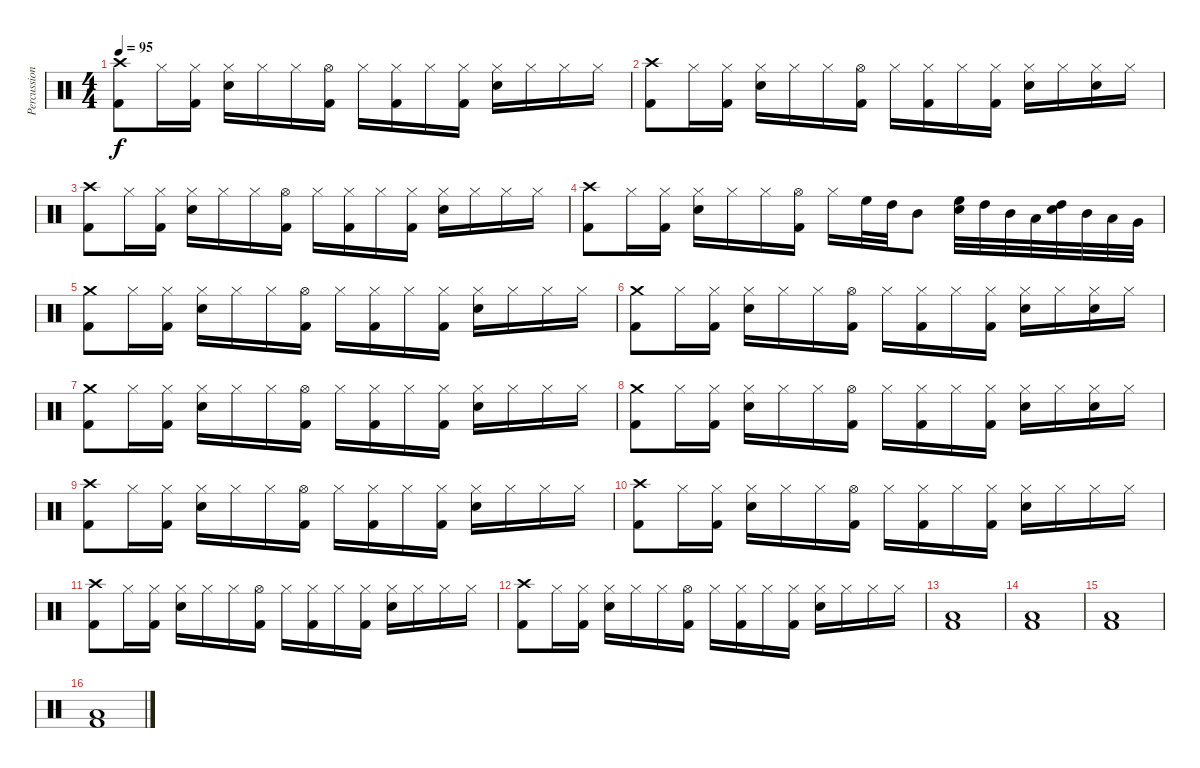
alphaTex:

\track ("Percussion" "Percussion") {instrument percussion}
\staff {score}
\articulation defaults
\ts (4 4)
\tempo 95
\clef neutral
\ks c
("Crash high (hit)" "Kick (hit) 2").8{dy f} "Hi-Hat (closed)".16 ("Hi-Hat (closed)" "Kick (hit) 2").16 ("Hi-Hat (closed)" "Electric Snare (hit)").16 "Hi-Hat (closed)".16 "Hi-Hat (closed)".16 ("Hi-Hat (open)" "Kick (hit) 2").16 "Hi-Hat (closed)".16 ("Hi-Hat (closed)" "Kick (hit) 2").16 "Hi-Hat (closed)".16 ("Hi-Hat (closed)" "Kick (hit) 2").16 ("Hi-Hat (closed)" "Electric Snare (hit)").16 "Hi-Hat (closed)".16 "Hi-Hat (closed)".16 "Hi-Hat (closed)".16 |
("Crash high (hit)" "Kick (hit) 2").8 "Hi-Hat (closed)".16 ("Hi-Hat (closed)" "Kick (hit) 2").16 ("Hi-Hat (closed)" "Electric Snare (hit)").16 "Hi-Hat (closed)".16 "Hi-Hat (closed)".16 ("Hi-Hat (open)" "Kick (hit) 2").16 "Hi-Hat (closed)".16 ("Hi-Hat (closed)" "Kick (hit) 2").16 "Hi-Hat (closed)".16 ("Hi-Hat (closed)" "Kick (hit) 2").16 ("Hi-Hat (closed)" "Electric Snare (hit)").16 "Hi-Hat (closed)".16 ("Hi-Hat (closed)" "Electric Snare (hit)").16 "Hi-Hat (closed)".16 |
("Crash high (hit)" "Kick (hit) 2").8 "Hi-Hat (closed)".16 ("Hi-Hat (closed)" "Kick (hit) 2").16 ("Hi-Hat (closed)" "Electric Snare (hit)").16 "Hi-Hat (closed)".16 "Hi-Hat (closed)".16 ("Hi-Hat (open)" "Kick (hit) 2").16 "Hi-Hat (closed)".16 ("Hi-Hat (closed)" "Kick (hit) 2").16 "Hi-Hat (closed)".16 ("Hi-Hat (closed)" "Kick (hit) 2").16 ("Hi-Hat (closed)" "Electric Snare (hit)").16 "Hi-Hat (closed)".16 "Hi-Hat (closed)".16 "Hi-Hat (closed)".16 |
("Crash high (hit)" "Kick (hit) 2").8 "Hi-Hat (closed)".16 ("Hi-Hat (closed)" "Kick (hit) 2").16 ("Hi-Hat (closed)" "Electric Snare (hit)").16 "Hi-Hat (closed)".16 "Hi-Hat (closed)".16 ("Hi-Hat (open)" "Kick (hit) 2").16 "Hi-Hat (closed)".16 "High Floor Tom (hit)".32 "High Tom (hit)".32 "Mid Tom (hit)".8 ("Electric Snare (hit)" "High Floor Tom (hit)").32 "High Tom (hit)".32 "Mid Tom (hit)".32 "Low Tom (hit)".32 ("Electric Snare (hit)" "High Tom (hit)").32 "Mid Tom (hit)".32 "Low Tom (hit)".32 "Very Low Tom (hit)".32 |
("Crash medium (hit)" "Kick (hit) 2").8 "Hi-Hat (closed)".16 ("Hi-Hat (closed)" "Kick (hit) 2").16 ("Hi-Hat (closed)" "Electric Snare (hit)").16 "Hi-Hat (closed)".16 "Hi-Hat (closed)".16 ("Hi-Hat (open)" "Kick (hit) 2").16 "Hi-Hat (closed)".16 ("Hi-Hat (closed)" "Kick (hit) 2").16 "Hi-Hat (closed)".16 ("Hi-Hat (closed)" "Kick (hit) 2").16 ("Hi-Hat (closed)" "Electric Snare (hit)").16 "Hi-Hat (closed)".16 "Hi-Hat (closed)".16 "Hi-Hat (closed)".16 |
("Crash medium (hit)" "Kick (hit) 2").8 "Hi-Hat (closed)".16 ("Hi-Hat (closed)" "Kick (hit) 2").16 ("Hi-Hat (closed)" "Electric Snare (hit)").16 "Hi-Hat (closed)".16 "Hi-Hat (closed)".16 ("Hi-Hat (open)" "Kick (hit) 2").16 "Hi-Hat (closed)".16 ("Hi-Hat (closed)" "Kick (hit) 2").16 "Hi-Hat (closed)".16 ("Hi-Hat (closed)" "Kick (hit) 2").16 ("Hi-Hat (closed)" "Electric Snare (hit)").16 "Hi-Hat (closed)".16 ("Hi-Hat (closed)" "Electric Snare (hit)").16 "Hi-Hat (closed)".16 |
("Crash medium (hit)" "Kick (hit) 2").8 "Hi-Hat (closed)".16 ("Hi-Hat (closed)" "Kick (hit) 2").16 ("Hi-Hat (closed)" "Electric Snare (hit)").16 "Hi-Hat (closed)".16 "Hi-Hat (closed)".16 ("Hi-Hat (open)" "Kick (hit) 2").16 "Hi-Hat (closed)".16 ("Hi-Hat (closed)" "Kick (hit) 2").16 "Hi-Hat (closed)".16 ("Hi-Hat (closed)" "Kick (hit) 2").16 ("Hi-Hat (closed)" "Electric Snare (hit)").16 "Hi-Hat (closed)".16 "Hi-Hat (closed)".16 "Hi-Hat (closed)".16 |
("Crash medium (hit)" "Kick (hit) 2").8 "Hi-Hat (closed)".16 ("Hi-Hat (closed)" "Kick (hit) 2").16 ("Hi-Hat (closed)" "Electric Snare (hit)").16 "Hi-Hat (closed)".16 "Hi-Hat (closed)".16 ("Hi-Hat (open)" "Kick (hit) 2").16 "Hi-Hat (closed)".16 ("Hi-Hat (closed)" "Kick (hit) 2").16 "Hi-Hat (closed)".16 ("Hi-Hat (closed)" "Kick (hit) 2").16 ("Hi-Hat (closed)" "Electric Snare (hit)").16 "Hi-Hat (closed)".16 ("Hi-Hat (closed)" "Electric Snare (hit)").16 "Hi-Hat (closed)".16 |
("Crash high (hit)" "Kick (hit) 2").8 "Hi-Hat (closed)".16 ("Hi-Hat (closed)" "Kick (hit) 2").16 ("Hi-Hat (closed)" "Electric Snare (hit)").16 "Hi-Hat (closed)".16 "Hi-Hat (closed)".16 ("Hi-Hat (open)" "Kick (hit) 2").16 "Hi-Hat (closed)".16 ("Hi-Hat (closed)" "Kick (hit) 2").16 "Hi-Hat (closed)".16 ("Hi-Hat (closed)" "Kick (hit) 2").16 ("Hi-Hat (closed)" "Electric Snare (hit)").16 "Hi-Hat (closed)".16 "Hi-Hat (closed)".16 "Hi-Hat (closed)".16 |
("Crash high (hit)" "Kick (hit) 2").8 "Hi-Hat (closed)".16 ("Hi-Hat (closed)" "Kick (hit) 2").16 ("Hi-Hat (closed)" "Electric Snare (hit)").16 "Hi-Hat (closed)".16 "Hi-Hat (closed)".16 ("Hi-Hat (open)" "Kick (hit) 2").16 "Hi-Hat (closed)".16 ("Hi-Hat (closed)" "Kick (hit) 2").16 "Hi-Hat (closed)".16 ("Hi-Hat (closed)" "Kick (hit) 2").16 ("Hi-Hat (closed)" "Electric Snare (hit)").16 "Hi-Hat (closed)".16 "Hi-Hat (closed)".16 "Hi-Hat (closed)".16 |
("Crash high (hit)" "Kick (hit) 2").8 "Hi-Hat (closed)".16 ("Hi-Hat (closed)" "Kick (hit) 2").16 ("Hi-Hat (closed)" "Electric Snare (hit)").16 "Hi-Hat (closed)".16 "Hi-Hat (closed)".16 ("Hi-Hat (open)" "Kick (hit) 2").16 "Hi-Hat (closed)".16 ("Hi-Hat (closed)" "Kick (hit) 2").16 "Hi-Hat (closed)".16 ("Hi-Hat (closed)" "Kick (hit) 2").16 ("Hi-Hat (closed)" "Electric Snare (hit)").16 "Hi-Hat (closed)".16 "Hi-Hat (closed)".16 "Hi-Hat (closed)".16 |
("Crash high (hit)" "Kick (hit) 2").8 "Hi-Hat (closed)".16 ("Hi-Hat (closed)" "Kick (hit) 2").16 ("Hi-Hat (closed)" "Electric Snare (hit)").16 "Hi-Hat (closed)".16 "Hi-Hat (closed)".16 ("Hi-Hat (open)" "Kick (hit) 2").16 "Hi-Hat (closed)".16 ("Hi-Hat (closed)" "Kick (hit) 2").16 "Hi-Hat (closed)".16 ("Hi-Hat (closed)" "Kick (hit) 2").16 ("Hi-Hat (closed)" "Electric Snare (hit)").16 "Hi-Hat (closed)".16 "Hi-Hat (closed)".16 "Hi-Hat (closed)".16 |
("Low Floor Tom (hit)" "Kick (hit) 2").1 |
("Low Floor Tom (hit)" "Kick (hit) 2").1 |
("Low Floor Tom (hit)" "Kick (hit) 2").1 |
("Low Floor Tom (hit)" "Kick (hit) 2").1
